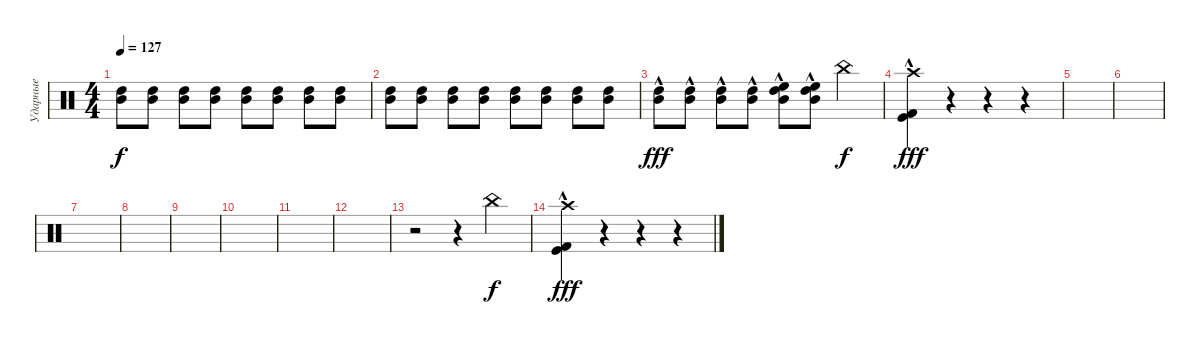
\track ("Ударные" "Ударные") {instrument percussion}
\staff {score}
\articulation defaults
\ts (4 4)
\tempo 127
\clef neutral
\ks c
("Mid Tom (hit)" "High Tom (hit)").8{dy f} ("Mid Tom (hit)" "High Tom (hit)").8 ("Mid Tom (hit)" "High Tom (hit)").8 ("Mid Tom (hit)" "High Tom (hit)").8 ("Mid Tom (hit)" "High Tom (hit)").8 ("Mid Tom (hit)" "High Tom (hit)").8 ("Mid Tom (hit)" "High Tom (hit)").8 ("Mid Tom (hit)" "High Tom (hit)").8 |
("Mid Tom (hit)" "High Tom (hit)").8 ("Mid Tom (hit)" "High Tom (hit)").8 ("Mid Tom (hit)" "High Tom (hit)").8 ("Mid Tom (hit)" "High Tom (hit)").8 ("Mid Tom (hit)" "High Tom (hit)").8 ("Mid Tom (hit)" "High Tom (hit)").8 ("Mid Tom (hit)" "High Tom (hit)").8 ("Mid Tom (hit)" "High Tom (hit)").8 |
("Mid Tom (hit)"{hac} "High Tom (hit)"{hac}).8{dy fff} ("Mid Tom (hit)"{hac} "High Tom (hit)"{hac}).8 ("Mid Tom (hit)"{hac} "High Tom (hit)"{hac}).8 ("Mid Tom (hit)"{hac} "High Tom (hit)"{hac}).8 ("Mid Tom (hit)"{hac} "High Tom (hit)"{hac} "High Floor Tom (hit)"{hac}).8 ("Mid Tom (hit)"{hac} "High Tom (hit)"{hac} "High Floor Tom (hit)"{hac}).8 "China (hit)".4{dy f} |
("Kick (hit) 2"{hac} "Kick (hit)"{hac} "Crash high (hit)"{hac}).4{dy fff} r.4 r.4 r.4 |
|
|
|
|
|
|
|
|
r.2 r.4 "China (hit)".4{dy f} |
("Kick (hit) 2"{hac} "Kick (hit)"{hac} "Crash high (hit)"{hac}).4{dy fff} r.4 r.4 r.4
